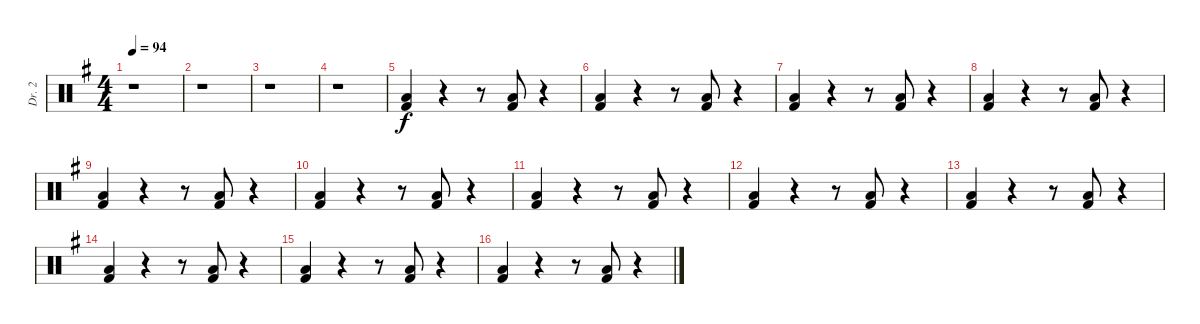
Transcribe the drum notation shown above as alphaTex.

\track ("Dr. 2" "Dr. 2") {instrument percussion}
\staff {score}
\articulation defaults
\ts (4 4)
\tempo 94
\clef neutral
\ks g
r.1{dy f} |
r.1 |
r.1 |
r.1 |
("Low Floor Tom (hit)" "Kick (hit) 2").4 r.4 r.8 ("Low Floor Tom (hit)" "Kick (hit) 2").8 r.4 |
("Low Floor Tom (hit)" "Kick (hit) 2").4 r.4 r.8 ("Low Floor Tom (hit)" "Kick (hit) 2").8 r.4 |
("Low Floor Tom (hit)" "Kick (hit) 2").4 r.4 r.8 ("Low Floor Tom (hit)" "Kick (hit) 2").8 r.4 |
("Low Floor Tom (hit)" "Kick (hit) 2").4 r.4 r.8 ("Low Floor Tom (hit)" "Kick (hit) 2").8 r.4 |
("Low Floor Tom (hit)" "Kick (hit) 2").4 r.4 r.8 ("Low Floor Tom (hit)" "Kick (hit) 2").8 r.4 |
("Low Floor Tom (hit)" "Kick (hit) 2").4 r.4 r.8 ("Low Floor Tom (hit)" "Kick (hit) 2").8 r.4 |
("Low Floor Tom (hit)" "Kick (hit) 2").4 r.4 r.8 ("Low Floor Tom (hit)" "Kick (hit) 2").8 r.4 |
("Low Floor Tom (hit)" "Kick (hit) 2").4 r.4 r.8 ("Low Floor Tom (hit)" "Kick (hit) 2").8 r.4 |
("Low Floor Tom (hit)" "Kick (hit) 2").4 r.4 r.8 ("Low Floor Tom (hit)" "Kick (hit) 2").8 r.4 |
("Low Floor Tom (hit)" "Kick (hit) 2").4 r.4 r.8 ("Low Floor Tom (hit)" "Kick (hit) 2").8 r.4 |
("Low Floor Tom (hit)" "Kick (hit) 2").4 r.4 r.8 ("Low Floor Tom (hit)" "Kick (hit) 2").8 r.4 |
("Low Floor Tom (hit)" "Kick (hit) 2").4 r.4 r.8 ("Low Floor Tom (hit)" "Kick (hit) 2").8 r.4
